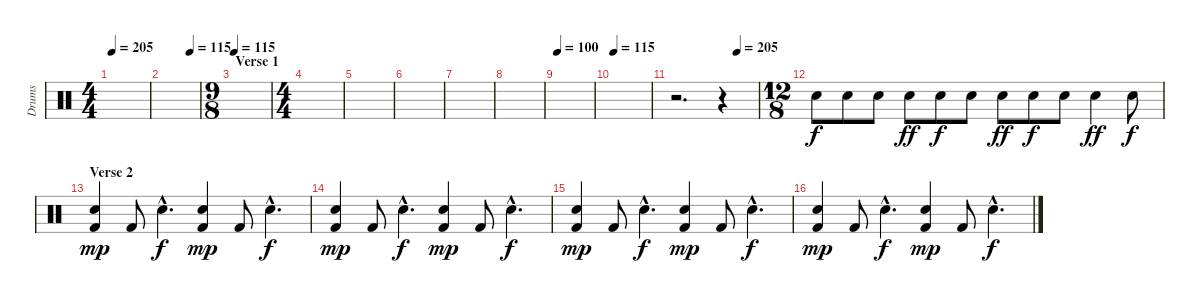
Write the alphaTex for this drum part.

\track ("Drums" "Drums") {instrument percussion}
\staff {score}
\articulation defaults
\ts (4 4)
\tempo 205
\tempo 115
\tempo 205
\clef neutral
\ks c
|
\tempo (115 0.75)
|
\ts (9 8)
\section ("" "Verse 1")
\tempo 115
|
\ts (4 4)
|
|
|
|
|
\tempo 100
|
\tempo 115
|
\tempo (205 0.75)
r.2{d} r.4 |
\ts (12 8)
"Snare (hit) 2".8{volume 12} "Snare (hit) 2".8{dy f} "Snare (hit) 2".8 "Snare (hit) 2".8{dy ff} "Snare (hit) 2".8{dy f} "Snare (hit) 2".8 "Snare (hit) 2".8{dy ff} "Snare (hit) 2".8{dy f} "Snare (hit) 2".8 "Snare (hit) 2".4{dy ff} "Snare (hit) 2".8{dy f} |
\section ("" "Verse 2")
("Snare (hit) 2" "Kick (hit) 2").4{dy mp volume 10} "Kick (hit) 2".8 "Snare (hit) 2"{hac}.4{d dy f} ("Snare (hit) 2" "Kick (hit) 2").4{dy mp} "Kick (hit) 2".8 "Snare (hit) 2"{hac}.4{d dy f} |
("Snare (hit) 2" "Kick (hit) 2").4{dy mp} "Kick (hit) 2".8 "Snare (hit) 2"{hac}.4{d dy f} ("Snare (hit) 2" "Kick (hit) 2").4{dy mp} "Kick (hit) 2".8 "Snare (hit) 2"{hac}.4{d dy f} |
("Snare (hit) 2" "Kick (hit) 2").4{dy mp volume 10} "Kick (hit) 2".8 "Snare (hit) 2"{hac}.4{d dy f} ("Snare (hit) 2" "Kick (hit) 2").4{dy mp} "Kick (hit) 2".8 "Snare (hit) 2"{hac}.4{d dy f} |
("Snare (hit) 2" "Kick (hit) 2").4{dy mp} "Kick (hit) 2".8 "Snare (hit) 2"{hac}.4{d dy f} ("Snare (hit) 2" "Kick (hit) 2").4{dy mp} "Kick (hit) 2".8 "Snare (hit) 2"{hac}.4{d dy f}
